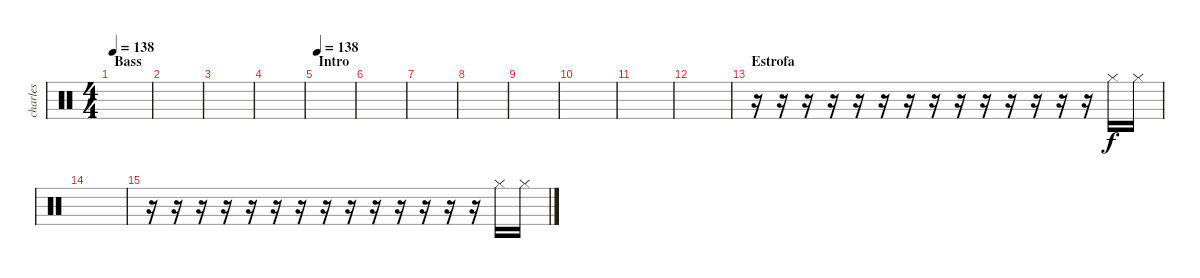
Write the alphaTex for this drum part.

\track ("charles" "charles") {instrument percussion}
\staff {score}
\articulation defaults
\ts (4 4)
\section ("" "Bass")
\tempo 138
\tempo 142
\tempo 138
\clef neutral
\ks c
|
|
|
|
\section ("" "Intro")
\tempo 138
|
|
|
|
|
|
|
|
\section ("" "Estrofa")
r.16 r.16 r.16 r.16 r.16 r.16 r.16 r.16 r.16 r.16 r.16 r.16 r.16 r.16 "Hi-Hat (closed)".16 "Hi-Hat (closed)".16 |
|
r.16 r.16 r.16 r.16 r.16 r.16 r.16 r.16 r.16 r.16 r.16 r.16 r.16 r.16 "Hi-Hat (closed)".16 "Hi-Hat (closed)".16
